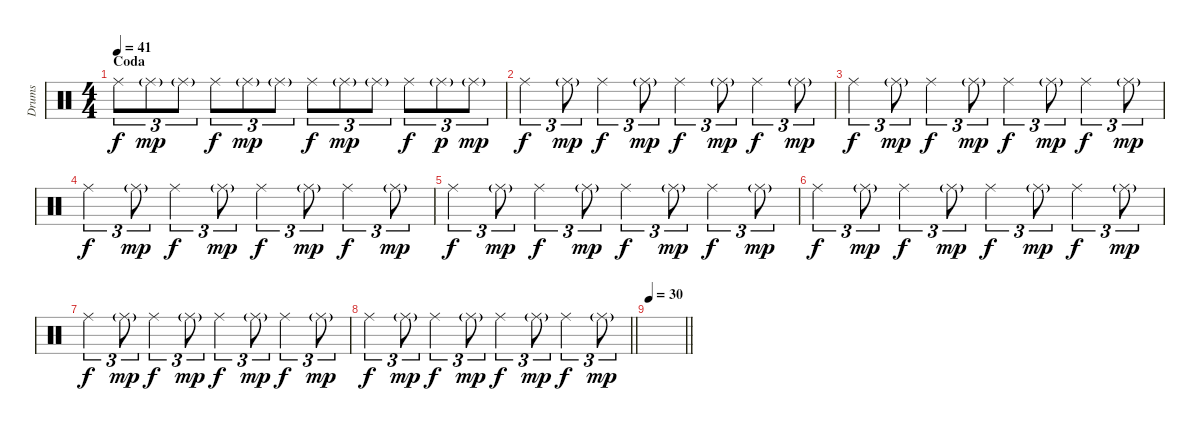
\track ("Drums" "Drums") {instrument percussion}
\staff {score}
\articulation defaults
\ts (4 4)
\section ("" "Coda")
\tempo 41
\clef neutral
\ks c "Ride (middle)".8{tu (3 2) dy f volume 8} "Ride (middle)"{g}.8{tu (3 2) dy mp} "Ride (middle)"{g}.8{tu (3 2)} "Ride (middle)".8{tu (3 2) dy f} "Ride (middle)"{g}.8{tu (3 2) dy mp} "Ride (middle)"{g}.8{tu (3 2)} "Ride (middle)".8{tu (3 2) dy f} "Ride (middle)"{g}.8{tu (3 2) dy mp} "Ride (middle)"{g}.8{tu (3 2)} "Ride (middle)".8{tu (3 2) dy f} "Ride (middle)"{g}.8{tu (3 2) dy p} "Ride (middle)"{g}.8{tu (3 2) dy mp}
|
"Ride (middle)".4{tu (3 2) dy f} "Ride (middle)"{g}.8{tu (3 2) dy mp} "Ride (middle)".4{tu (3 2) dy f} "Ride (middle)"{g}.8{tu (3 2) dy mp} "Ride (middle)".4{tu (3 2) dy f} "Ride (middle)"{g}.8{tu (3 2) dy mp} "Ride (middle)".4{tu (3 2) dy f} "Ride (middle)"{g}.8{tu (3 2) dy mp} |
"Ride (middle)".4{tu (3 2) dy f} "Ride (middle)"{g}.8{tu (3 2) dy mp} "Ride (middle)".4{tu (3 2) dy f} "Ride (middle)"{g}.8{tu (3 2) dy mp} "Ride (middle)".4{tu (3 2) dy f} "Ride (middle)"{g}.8{tu (3 2) dy mp} "Ride (middle)".4{tu (3 2) dy f} "Ride (middle)"{g}.8{tu (3 2) dy mp} |
"Ride (middle)".4{tu (3 2) dy f} "Ride (middle)"{g}.8{tu (3 2) dy mp} "Ride (middle)".4{tu (3 2) dy f} "Ride (middle)"{g}.8{tu (3 2) dy mp} "Ride (middle)".4{tu (3 2) dy f} "Ride (middle)"{g}.8{tu (3 2) dy mp} "Ride (middle)".4{tu (3 2) dy f} "Ride (middle)"{g}.8{tu (3 2) dy mp} |
"Ride (middle)".4{tu (3 2) dy f volume 4} "Ride (middle)"{g}.8{tu (3 2) dy mp} "Ride (middle)".4{tu (3 2) dy f} "Ride (middle)"{g}.8{tu (3 2) dy mp} "Ride (middle)".4{tu (3 2) dy f} "Ride (middle)"{g}.8{tu (3 2) dy mp} "Ride (middle)".4{tu (3 2) dy f} "Ride (middle)"{g}.8{tu (3 2) dy mp} |
"Ride (middle)".4{tu (3 2) dy f} "Ride (middle)"{g}.8{tu (3 2) dy mp} "Ride (middle)".4{tu (3 2) dy f} "Ride (middle)"{g}.8{tu (3 2) dy mp} "Ride (middle)".4{tu (3 2) dy f} "Ride (middle)"{g}.8{tu (3 2) dy mp} "Ride (middle)".4{tu (3 2) dy f} "Ride (middle)"{g}.8{tu (3 2) dy mp} |
"Ride (middle)".4{tu (3 2) dy f} "Ride (middle)"{g}.8{tu (3 2) dy mp} "Ride (middle)".4{tu (3 2) dy f} "Ride (middle)"{g}.8{tu (3 2) dy mp} "Ride (middle)".4{tu (3 2) dy f} "Ride (middle)"{g}.8{tu (3 2) dy mp} "Ride (middle)".4{tu (3 2) dy f} "Ride (middle)"{g}.8{tu (3 2) dy mp} |
\barLineRight lightlight "Ride (middle)".4{tu (3 2) dy f} "Ride (middle)"{g}.8{tu (3 2) dy mp} "Ride (middle)".4{tu (3 2) dy f} "Ride (middle)"{g}.8{tu (3 2) dy mp} "Ride (middle)".4{tu (3 2) dy f} "Ride (middle)"{g}.8{tu (3 2) dy mp} "Ride (middle)".4{tu (3 2) dy f} "Ride (middle)"{g}.8{tu (3 2) dy mp}
|
\tempo 30
\barLineRight lightlight
